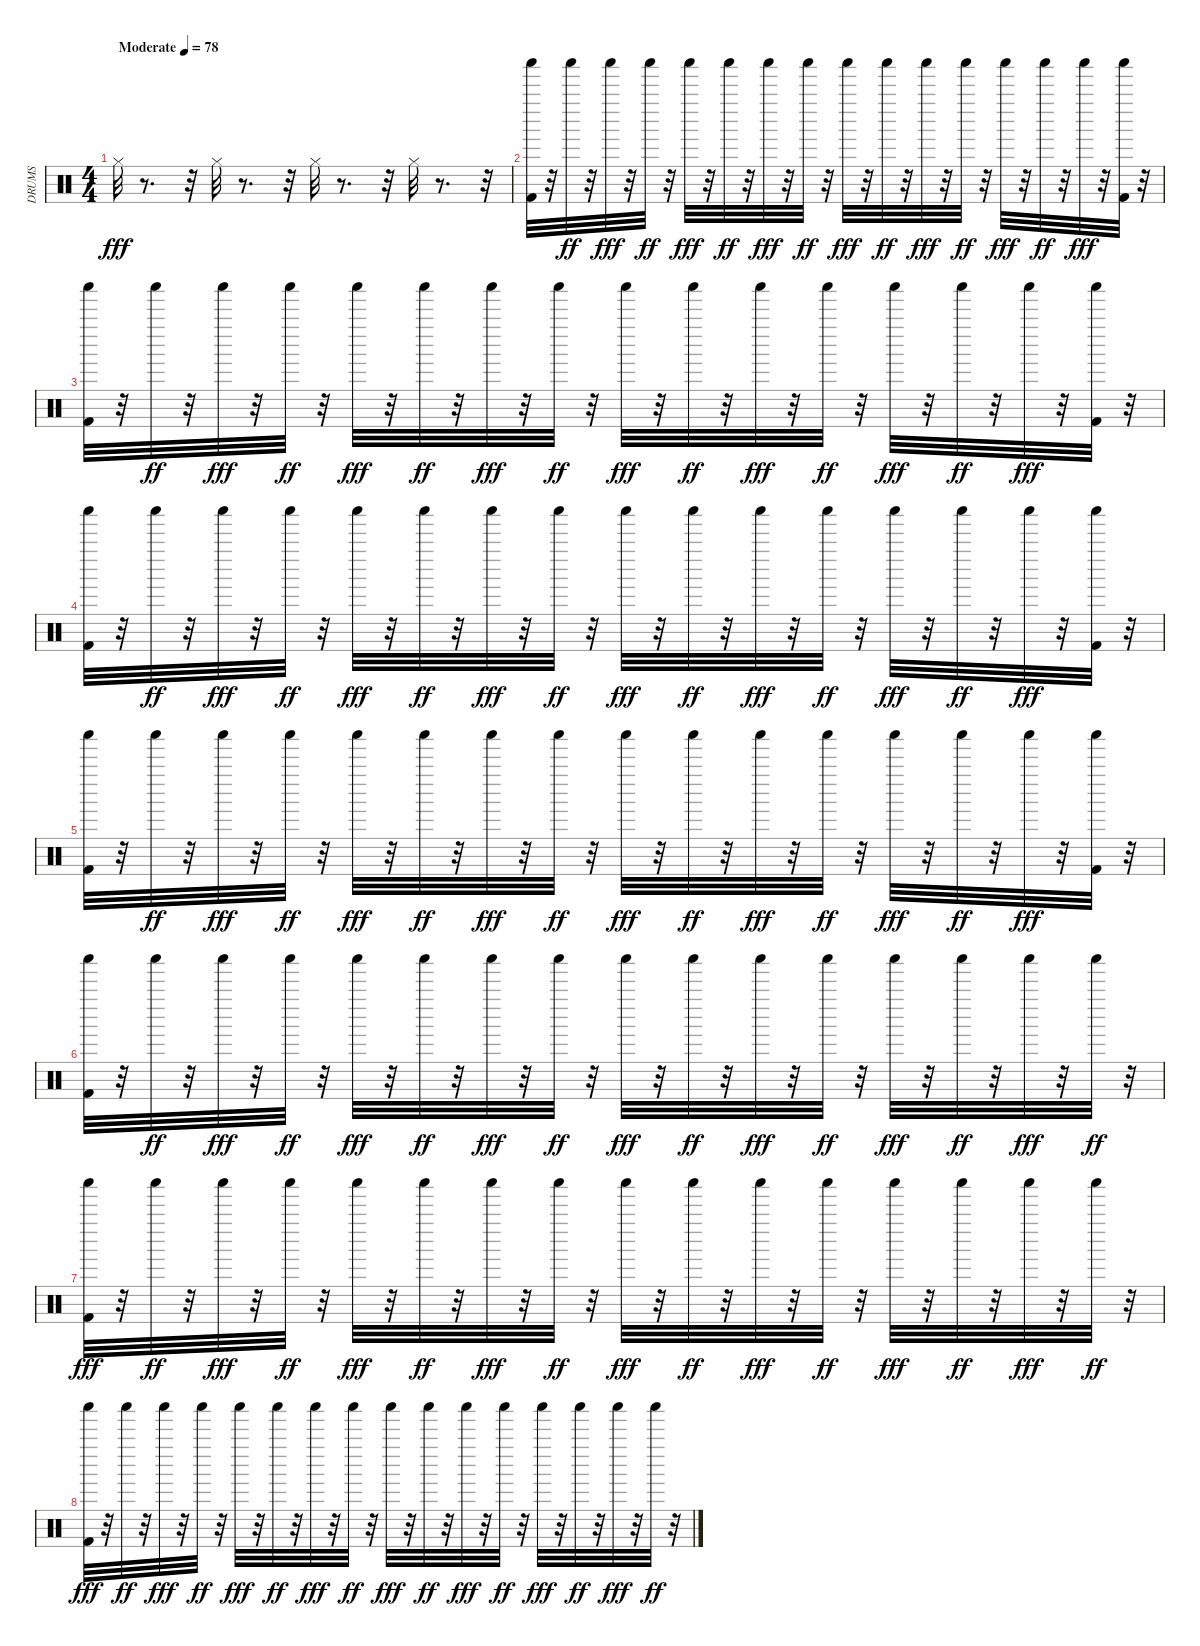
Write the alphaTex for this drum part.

\track ("DRUMS" "DRUMS") {instrument percussion}
\staff {score}
\articulation defaults
\ts (4 4)
\tempo (78 "Moderate")
\clef neutral
\ks c "Hi-Hat (closed)".32{dy fff}
r.8{d} r.32 "Hi-Hat (closed)".32 r.8{d} r.32 "Hi-Hat (closed)".32 r.8{d} r.32 "Hi-Hat (closed)".32 r.8{d} r.32 |
("Shaker (hit)" "Kick (hit) 2").32 r.32 "Shaker (hit)".32{dy ff} r.32 "Shaker (hit)".32{dy fff} r.32 "Shaker (hit)".32{dy ff} r.32 "Shaker (hit)".32{dy fff} r.32 "Shaker (hit)".32{dy ff} r.32 "Shaker (hit)".32{dy fff} r.32 "Shaker (hit)".32{dy ff} r.32 "Shaker (hit)".32{dy fff} r.32 "Shaker (hit)".32{dy ff} r.32 "Shaker (hit)".32{dy fff} r.32 "Shaker (hit)".32{dy ff} r.32 "Shaker (hit)".32{dy fff} r.32 "Shaker (hit)".32{dy ff} r.32 "Shaker (hit)".32{dy fff} r.32 ("Shaker (hit)" "Kick (hit) 2").32 r.32 |
("Shaker (hit)" "Kick (hit) 2").32 r.32 "Shaker (hit)".32{dy ff} r.32 "Shaker (hit)".32{dy fff} r.32 "Shaker (hit)".32{dy ff} r.32 "Shaker (hit)".32{dy fff} r.32 "Shaker (hit)".32{dy ff} r.32 "Shaker (hit)".32{dy fff} r.32 "Shaker (hit)".32{dy ff} r.32 "Shaker (hit)".32{dy fff} r.32 "Shaker (hit)".32{dy ff} r.32 "Shaker (hit)".32{dy fff} r.32 "Shaker (hit)".32{dy ff} r.32 "Shaker (hit)".32{dy fff} r.32 "Shaker (hit)".32{dy ff} r.32 "Shaker (hit)".32{dy fff} r.32 ("Shaker (hit)" "Kick (hit) 2").32 r.32 |
("Shaker (hit)" "Kick (hit) 2").32 r.32 "Shaker (hit)".32{dy ff} r.32 "Shaker (hit)".32{dy fff} r.32 "Shaker (hit)".32{dy ff} r.32 "Shaker (hit)".32{dy fff} r.32 "Shaker (hit)".32{dy ff} r.32 "Shaker (hit)".32{dy fff} r.32 "Shaker (hit)".32{dy ff} r.32 "Shaker (hit)".32{dy fff} r.32 "Shaker (hit)".32{dy ff} r.32 "Shaker (hit)".32{dy fff} r.32 "Shaker (hit)".32{dy ff} r.32 "Shaker (hit)".32{dy fff} r.32 "Shaker (hit)".32{dy ff} r.32 "Shaker (hit)".32{dy fff} r.32 ("Shaker (hit)" "Kick (hit) 2").32 r.32 |
("Shaker (hit)" "Kick (hit) 2").32 r.32 "Shaker (hit)".32{dy ff} r.32 "Shaker (hit)".32{dy fff} r.32 "Shaker (hit)".32{dy ff} r.32 "Shaker (hit)".32{dy fff} r.32 "Shaker (hit)".32{dy ff} r.32 "Shaker (hit)".32{dy fff} r.32 "Shaker (hit)".32{dy ff} r.32 "Shaker (hit)".32{dy fff} r.32 "Shaker (hit)".32{dy ff} r.32 "Shaker (hit)".32{dy fff} r.32 "Shaker (hit)".32{dy ff} r.32 "Shaker (hit)".32{dy fff} r.32 "Shaker (hit)".32{dy ff} r.32 "Shaker (hit)".32{dy fff} r.32 ("Shaker (hit)" "Kick (hit) 2").32 r.32 |
("Shaker (hit)" "Kick (hit) 2").32 r.32 "Shaker (hit)".32{dy ff} r.32 "Shaker (hit)".32{dy fff} r.32 "Shaker (hit)".32{dy ff} r.32 "Shaker (hit)".32{dy fff} r.32 "Shaker (hit)".32{dy ff} r.32 "Shaker (hit)".32{dy fff} r.32 "Shaker (hit)".32{dy ff} r.32 "Shaker (hit)".32{dy fff} r.32 "Shaker (hit)".32{dy ff} r.32 "Shaker (hit)".32{dy fff} r.32 "Shaker (hit)".32{dy ff} r.32 "Shaker (hit)".32{dy fff} r.32 "Shaker (hit)".32{dy ff} r.32 "Shaker (hit)".32{dy fff} r.32 "Shaker (hit)".32{dy ff} r.32 |
("Shaker (hit)" "Kick (hit) 2").32{dy fff} r.32 "Shaker (hit)".32{dy ff} r.32 "Shaker (hit)".32{dy fff} r.32 "Shaker (hit)".32{dy ff} r.32 "Shaker (hit)".32{dy fff} r.32 "Shaker (hit)".32{dy ff} r.32 "Shaker (hit)".32{dy fff} r.32 "Shaker (hit)".32{dy ff} r.32 "Shaker (hit)".32{dy fff} r.32 "Shaker (hit)".32{dy ff} r.32 "Shaker (hit)".32{dy fff} r.32 "Shaker (hit)".32{dy ff} r.32 "Shaker (hit)".32{dy fff} r.32 "Shaker (hit)".32{dy ff} r.32 "Shaker (hit)".32{dy fff} r.32 "Shaker (hit)".32{dy ff} r.32 |
("Shaker (hit)" "Kick (hit) 2").32{dy fff} r.32 "Shaker (hit)".32{dy ff} r.32 "Shaker (hit)".32{dy fff} r.32 "Shaker (hit)".32{dy ff} r.32 "Shaker (hit)".32{dy fff} r.32 "Shaker (hit)".32{dy ff} r.32 "Shaker (hit)".32{dy fff} r.32 "Shaker (hit)".32{dy ff} r.32 "Shaker (hit)".32{dy fff} r.32 "Shaker (hit)".32{dy ff} r.32 "Shaker (hit)".32{dy fff} r.32 "Shaker (hit)".32{dy ff} r.32 "Shaker (hit)".32{dy fff} r.32 "Shaker (hit)".32{dy ff} r.32 "Shaker (hit)".32{dy fff} r.32 "Shaker (hit)".32{dy ff} r.32
